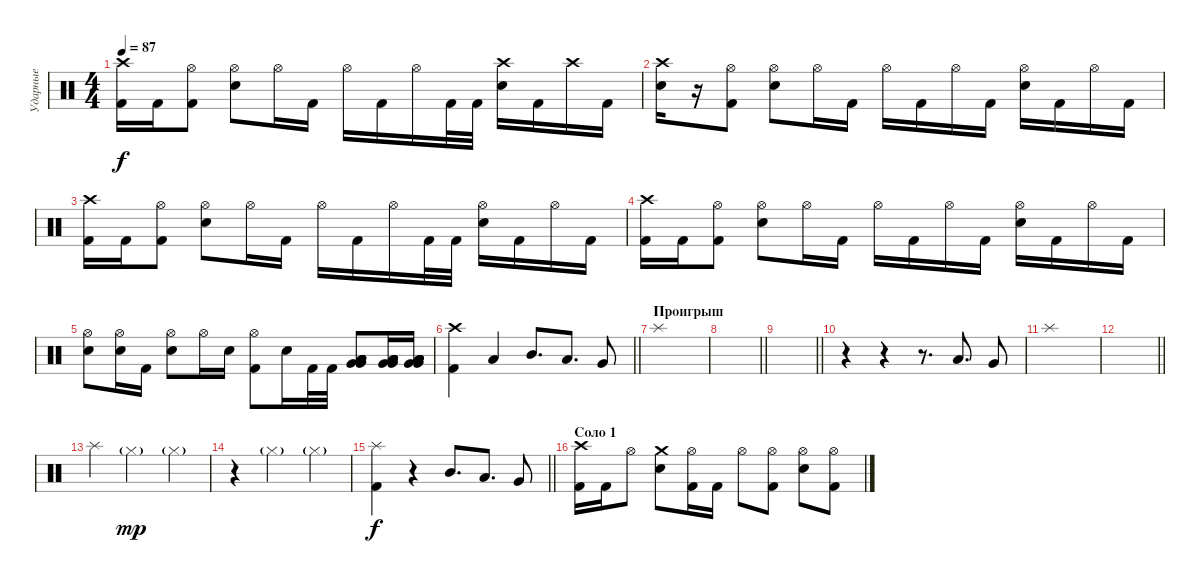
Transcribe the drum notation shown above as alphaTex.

\track ("Ударные" "Ударные") {instrument percussion}
\staff {score}
\articulation defaults
\ts (4 4)
\tempo 87
\clef neutral
\ks c
("Crash high (hit)" "Kick (hit) 2").16{dy f} "Kick (hit) 2".16 ("Hi-Hat (open)" "Kick (hit) 2").8 ("Hi-Hat (open)" "Snare (hit) 2").8 "Hi-Hat (open)".16 "Kick (hit) 2".16 "Hi-Hat (open)".16 "Kick (hit) 2".16 "Hi-Hat (open)".16 "Kick (hit) 2".32 "Kick (hit) 2".32 ("Crash high (hit)" "Snare (hit) 2").16 "Kick (hit) 2".16 "Crash high (hit)".16 "Kick (hit) 2".16 |
("Crash high (hit)" "Snare (hit) 2").16 r.16 ("Hi-Hat (open)" "Kick (hit) 2").8 ("Hi-Hat (open)" "Snare (hit) 2").8 "Hi-Hat (open)".16 "Kick (hit) 2".16 "Hi-Hat (open)".16 "Kick (hit) 2".16 "Hi-Hat (open)".16 "Kick (hit) 2".16 ("Hi-Hat (open)" "Snare (hit) 2").16 "Kick (hit) 2".16 "Hi-Hat (open)".16 "Kick (hit) 2".16 |
("Crash high (hit)" "Kick (hit) 2").16 "Kick (hit) 2".16 ("Hi-Hat (open)" "Kick (hit) 2").8 ("Hi-Hat (open)" "Snare (hit) 2").8 "Hi-Hat (open)".16 "Kick (hit) 2".16 "Hi-Hat (open)".16 "Kick (hit) 2".16 "Hi-Hat (open)".16 "Kick (hit) 2".32 "Kick (hit) 2".32 ("Hi-Hat (open)" "Snare (hit) 2").16 "Kick (hit) 2".16 "Hi-Hat (open)".16 "Kick (hit) 2".16 |
("Crash high (hit)" "Kick (hit) 2").16 "Kick (hit) 2".16 ("Hi-Hat (open)" "Kick (hit) 2").8 ("Hi-Hat (open)" "Snare (hit) 2").8 "Hi-Hat (open)".16 "Kick (hit) 2".16 "Hi-Hat (open)".16 "Kick (hit) 2".16 "Hi-Hat (open)".16 "Kick (hit) 2".16 ("Hi-Hat (open)" "Snare (hit) 2").16 "Kick (hit) 2".16 "Hi-Hat (open)".16 "Kick (hit) 2".16 |
("Hi-Hat (open)" "Snare (hit) 2").8 ("Hi-Hat (open)" "Snare (hit) 2").16 "Kick (hit) 2".16 ("Hi-Hat (open)" "Snare (hit) 2").8 "Hi-Hat (open)".16 "Snare (hit) 2".16 ("Hi-Hat (open)" "Kick (hit) 2").8 "Snare (hit) 2".16 "Kick (hit) 2".32 "Kick (hit) 2".32 ("Low Tom (hit)" "Low Tom (hit)" "Very Low Tom (hit)" "Very Low Tom (hit)" "Low Floor Tom (hit)" "Low Floor Tom (hit)").8 ("Low Tom (hit)" "Low Tom (hit)" "Very Low Tom (hit)" "Very Low Tom (hit)" "Low Floor Tom (hit)" "Low Floor Tom (hit)").16 ("Low Tom (hit)" "Low Tom (hit)" "Very Low Tom (hit)" "Very Low Tom (hit)" "Low Floor Tom (hit)" "Low Floor Tom (hit)").16 |
\barLineRight lightlight
("Crash high (hit)" "Kick (hit) 2").4 "Low Floor Tom (hit)".4 "Mid Tom (hit)".8{d} "Low Tom (hit)".8{d} "Very Low Tom (hit)".8 |
\section ("" "Проигрыш")
"Splash (hit)".1 |
\barLineRight lightlight
|
\barLineRight lightlight
|
r.4 r.4 r.8{d} "Low Tom (hit)".8{d} "Very Low Tom (hit)".8 |
"Splash (hit)".1 |
\barLineRight lightlight
|
"Splash (hit)".4 "Hi-Hat (closed)"{g}.2{dy mp} "Hi-Hat (closed)"{g}.4 |
r.4 "Hi-Hat (closed)"{g}.2 "Hi-Hat (closed)"{g}.4 |
\barLineRight lightlight
("Splash (hit)" "Kick (hit) 2").4{dy f} r.4 "Mid Tom (hit)".8{d} "Low Tom (hit)".8{d} "Very Low Tom (hit)".8 |
\section ("" "Соло 1")
("Crash high (hit)" "Kick (hit) 2").16 "Kick (hit) 2".16 "Hi-Hat (open)".8 ("Crash medium (hit)" "Snare (hit) 2").8 ("Hi-Hat (open)" "Kick (hit) 2").16 "Kick (hit) 2".16 "Hi-Hat (open)".8 ("Hi-Hat (open)" "Kick (hit) 2").8 ("Hi-Hat (open)" "Snare (hit) 2").8 ("Hi-Hat (open)" "Kick (hit) 2").8
